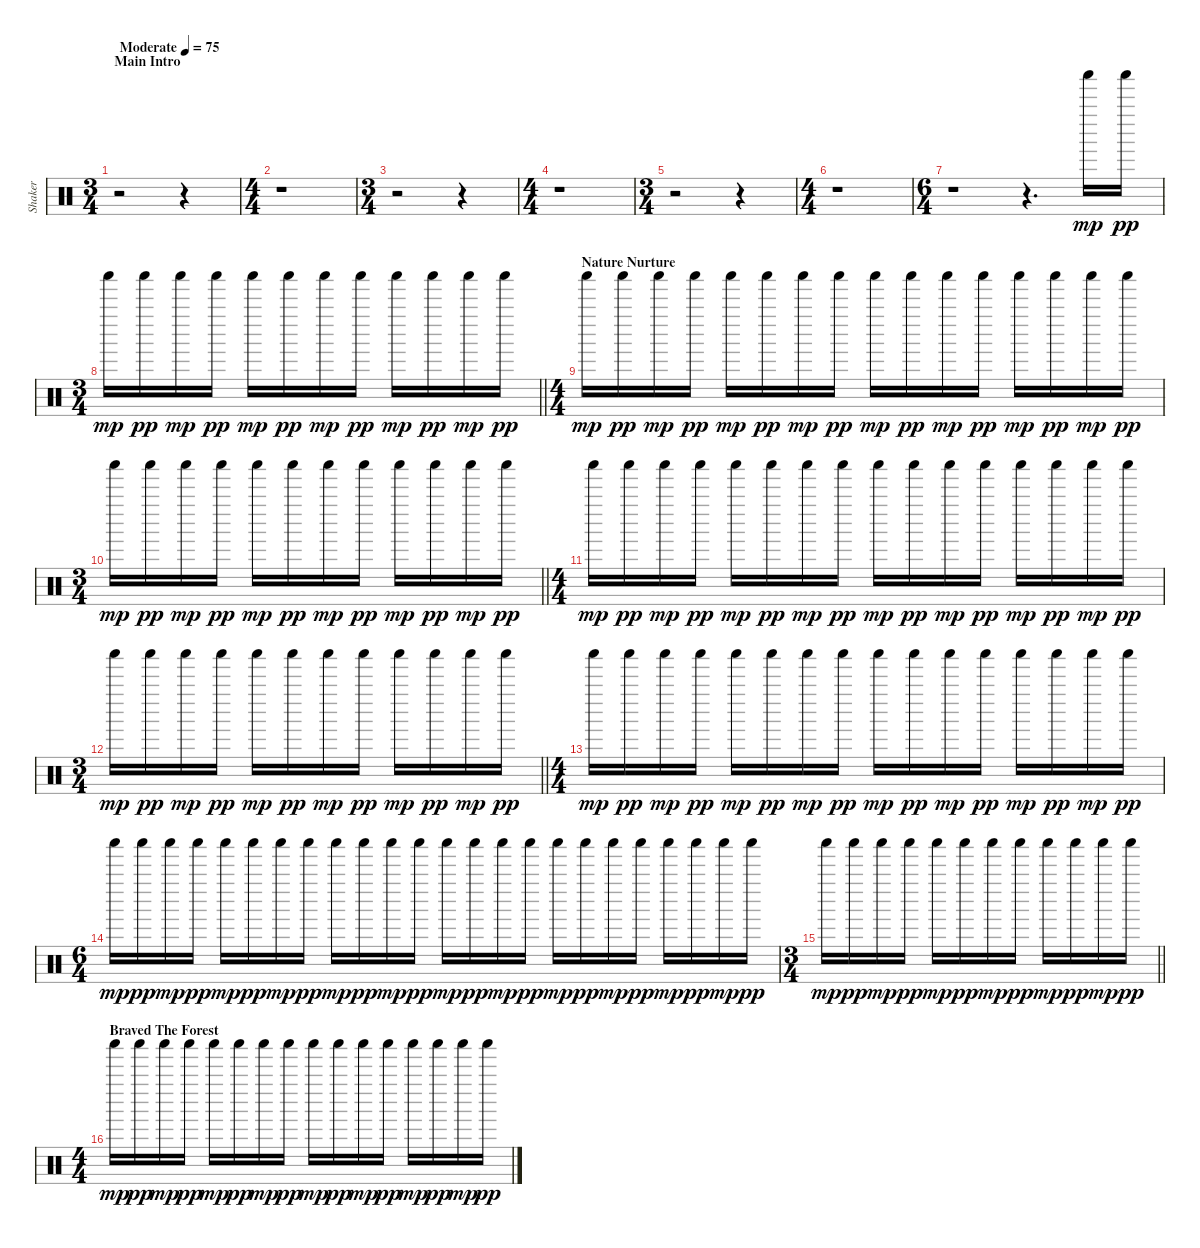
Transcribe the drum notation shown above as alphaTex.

\track ("Shaker" "Shaker") {instrument percussion}
\staff {score}
\articulation defaults
\ts (3 4)
\section ("" "Main Intro")
\tempo (75 "Moderate")
\clef neutral
\ks c
r.2{dy mp} r.4 |
\ts (4 4)
r.1 |
\ts (3 4)
r.2 r.4 |
\ts (4 4)
r.1 |
\ts (3 4)
r.2 r.4 |
\ts (4 4)
r.1 |
\ts (6 4)
r.1 r.4{d volume 7} "Shaker (hit)".16 "Shaker (hit)".16{dy pp} |
\ts (3 4)
\barLineRight lightlight "Shaker (hit)".16{dy mp} "Shaker (hit)".16{dy pp} "Shaker (hit)".16{dy mp} "Shaker (hit)".16{dy pp} "Shaker (hit)".16{dy mp} "Shaker (hit)".16{dy pp} "Shaker (hit)".16{dy mp} "Shaker (hit)".16{dy pp} "Shaker (hit)".16{dy mp} "Shaker (hit)".16{dy pp} "Shaker (hit)".16{dy mp} "Shaker (hit)".16{dy pp}
|
\ts (4 4)
\section ("" "Nature Nurture")
"Shaker (hit)".16{dy mp} "Shaker (hit)".16{dy pp} "Shaker (hit)".16{dy mp} "Shaker (hit)".16{dy pp} "Shaker (hit)".16{dy mp} "Shaker (hit)".16{dy pp} "Shaker (hit)".16{dy mp} "Shaker (hit)".16{dy pp} "Shaker (hit)".16{dy mp} "Shaker (hit)".16{dy pp} "Shaker (hit)".16{dy mp} "Shaker (hit)".16{dy pp} "Shaker (hit)".16{dy mp} "Shaker (hit)".16{dy pp} "Shaker (hit)".16{dy mp} "Shaker (hit)".16{dy pp} |
\ts (3 4)
\barLineRight lightlight "Shaker (hit)".16{dy mp} "Shaker (hit)".16{dy pp} "Shaker (hit)".16{dy mp} "Shaker (hit)".16{dy pp} "Shaker (hit)".16{dy mp} "Shaker (hit)".16{dy pp} "Shaker (hit)".16{dy mp} "Shaker (hit)".16{dy pp} "Shaker (hit)".16{dy mp} "Shaker (hit)".16{dy pp} "Shaker (hit)".16{dy mp} "Shaker (hit)".16{dy pp}
|
\ts (4 4)
"Shaker (hit)".16{dy mp} "Shaker (hit)".16{dy pp} "Shaker (hit)".16{dy mp} "Shaker (hit)".16{dy pp} "Shaker (hit)".16{dy mp} "Shaker (hit)".16{dy pp} "Shaker (hit)".16{dy mp} "Shaker (hit)".16{dy pp} "Shaker (hit)".16{dy mp} "Shaker (hit)".16{dy pp} "Shaker (hit)".16{dy mp} "Shaker (hit)".16{dy pp} "Shaker (hit)".16{dy mp} "Shaker (hit)".16{dy pp} "Shaker (hit)".16{dy mp} "Shaker (hit)".16{dy pp} |
\ts (3 4)
\barLineRight lightlight "Shaker (hit)".16{dy mp} "Shaker (hit)".16{dy pp} "Shaker (hit)".16{dy mp} "Shaker (hit)".16{dy pp} "Shaker (hit)".16{dy mp} "Shaker (hit)".16{dy pp} "Shaker (hit)".16{dy mp} "Shaker (hit)".16{dy pp} "Shaker (hit)".16{dy mp} "Shaker (hit)".16{dy pp} "Shaker (hit)".16{dy mp} "Shaker (hit)".16{dy pp}
|
\ts (4 4)
"Shaker (hit)".16{dy mp} "Shaker (hit)".16{dy pp} "Shaker (hit)".16{dy mp} "Shaker (hit)".16{dy pp} "Shaker (hit)".16{dy mp} "Shaker (hit)".16{dy pp} "Shaker (hit)".16{dy mp} "Shaker (hit)".16{dy pp} "Shaker (hit)".16{dy mp} "Shaker (hit)".16{dy pp} "Shaker (hit)".16{dy mp} "Shaker (hit)".16{dy pp} "Shaker (hit)".16{dy mp} "Shaker (hit)".16{dy pp} "Shaker (hit)".16{dy mp} "Shaker (hit)".16{dy pp} |
\ts (6 4)
"Shaker (hit)".16{dy mp} "Shaker (hit)".16{dy pp} "Shaker (hit)".16{dy mp} "Shaker (hit)".16{dy pp} "Shaker (hit)".16{dy mp} "Shaker (hit)".16{dy pp} "Shaker (hit)".16{dy mp} "Shaker (hit)".16{dy pp} "Shaker (hit)".16{dy mp} "Shaker (hit)".16{dy pp} "Shaker (hit)".16{dy mp} "Shaker (hit)".16{dy pp} "Shaker (hit)".16{dy mp} "Shaker (hit)".16{dy pp} "Shaker (hit)".16{dy mp} "Shaker (hit)".16{dy pp} "Shaker (hit)".16{dy mp} "Shaker (hit)".16{dy pp} "Shaker (hit)".16{dy mp} "Shaker (hit)".16{dy pp} "Shaker (hit)".16{dy mp} "Shaker (hit)".16{dy pp} "Shaker (hit)".16{dy mp} "Shaker (hit)".16{dy pp} |
\ts (3 4)
\barLineRight lightlight "Shaker (hit)".16{dy mp} "Shaker (hit)".16{dy pp} "Shaker (hit)".16{dy mp} "Shaker (hit)".16{dy pp} "Shaker (hit)".16{dy mp} "Shaker (hit)".16{dy pp} "Shaker (hit)".16{dy mp} "Shaker (hit)".16{dy pp} "Shaker (hit)".16{dy mp} "Shaker (hit)".16{dy pp} "Shaker (hit)".16{dy mp} "Shaker (hit)".16{dy pp}
|
\ts (4 4)
\section ("" "Braved The Forest")
"Shaker (hit)".16{dy mp} "Shaker (hit)".16{dy pp} "Shaker (hit)".16{dy mp} "Shaker (hit)".16{dy pp} "Shaker (hit)".16{dy mp} "Shaker (hit)".16{dy pp} "Shaker (hit)".16{dy mp} "Shaker (hit)".16{dy pp} "Shaker (hit)".16{dy mp} "Shaker (hit)".16{dy pp} "Shaker (hit)".16{dy mp} "Shaker (hit)".16{dy pp} "Shaker (hit)".16{dy mp} "Shaker (hit)".16{dy pp} "Shaker (hit)".16{dy mp} "Shaker (hit)".16{dy pp}
